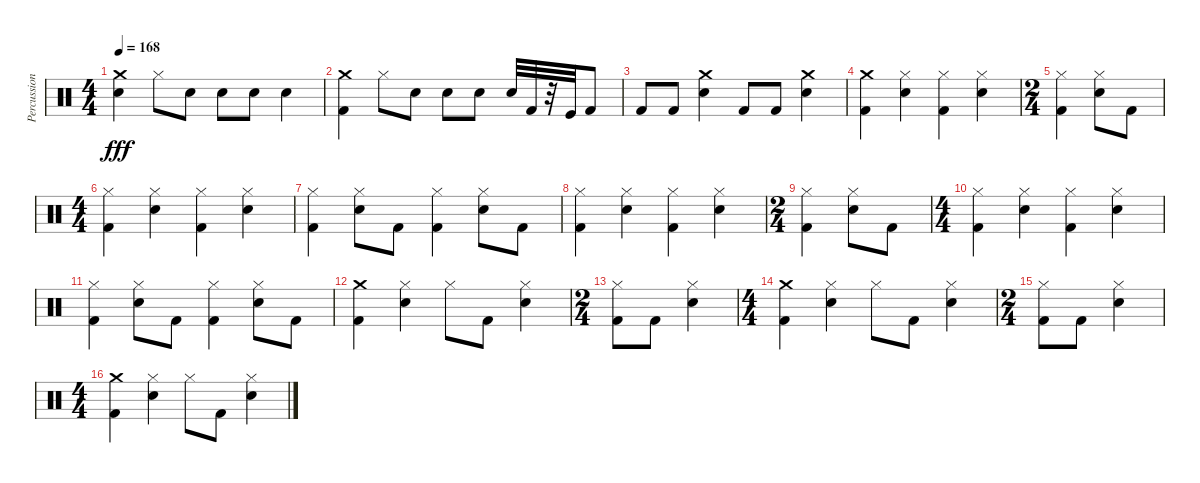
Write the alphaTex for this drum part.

\track ("Percussion" "Percussion") {instrument percussion}
\staff {score}
\articulation defaults
\ts (4 4)
\tempo 168
\clef neutral
\ks c
("Snare (hit) 2" "Crash medium (hit)").4{dy fff} "Hi-Hat (closed)".8 "Snare (hit) 2".8 "Snare (hit) 2".8 "Snare (hit) 2".8 "Snare (hit) 2".4 |
("Kick (hit) 2" "Crash medium (hit)").4 "Hi-Hat (closed)".8 "Snare (hit) 2".8 "Snare (hit) 2".8 "Snare (hit) 2".8 "Snare (hit) 2".32 "Kick (hit) 2".32 r.32 "Kick (hit)".32 "Kick (hit) 2".8 |
"Kick (hit) 2".8 "Kick (hit) 2".8 ("Snare (hit) 2" "Crash medium (hit)").4 "Kick (hit) 2".8 "Kick (hit) 2".8 ("Crash medium (hit)" "Snare (hit) 2").4 |
("Kick (hit) 2" "Crash medium (hit)").4 ("Hi-Hat (closed)" "Snare (hit) 2").4 ("Hi-Hat (closed)" "Kick (hit) 2").4 ("Snare (hit) 2" "Hi-Hat (closed)").4 |
\ts (2 4)
("Hi-Hat (closed)" "Kick (hit) 2").4 ("Snare (hit) 2" "Hi-Hat (closed)").8 "Kick (hit) 2".8 |
\ts (4 4)
("Kick (hit) 2" "Hi-Hat (closed)").4 ("Snare (hit) 2" "Hi-Hat (closed)").4 ("Kick (hit) 2" "Hi-Hat (closed)").4 ("Snare (hit) 2" "Hi-Hat (closed)").4 |
("Hi-Hat (closed)" "Kick (hit) 2").4 ("Snare (hit) 2" "Hi-Hat (closed)").8 "Kick (hit) 2".8 ("Kick (hit) 2" "Hi-Hat (closed)").4 ("Hi-Hat (closed)" "Snare (hit) 2").8 "Kick (hit) 2".8 |
("Hi-Hat (closed)" "Kick (hit) 2").4 ("Hi-Hat (closed)" "Snare (hit) 2").4 ("Hi-Hat (closed)" "Kick (hit) 2").4 ("Snare (hit) 2" "Hi-Hat (closed)").4 |
\ts (2 4)
("Hi-Hat (closed)" "Kick (hit) 2").4 ("Snare (hit) 2" "Hi-Hat (closed)").8 "Kick (hit) 2".8 |
\ts (4 4)
("Kick (hit) 2" "Hi-Hat (closed)").4 ("Snare (hit) 2" "Hi-Hat (closed)").4 ("Kick (hit) 2" "Hi-Hat (closed)").4 ("Snare (hit) 2" "Hi-Hat (closed)").4 |
("Hi-Hat (closed)" "Kick (hit) 2").4 ("Snare (hit) 2" "Hi-Hat (closed)").8 "Kick (hit) 2".8 ("Kick (hit) 2" "Hi-Hat (closed)").4 ("Hi-Hat (closed)" "Snare (hit) 2").8 "Kick (hit) 2".8 |
("Kick (hit) 2" "Crash medium (hit)").4 ("Hi-Hat (closed)" "Snare (hit) 2").4 "Hi-Hat (closed)".8 "Kick (hit) 2".8 ("Snare (hit) 2" "Hi-Hat (closed)").4 |
\ts (2 4)
("Kick (hit) 2" "Hi-Hat (closed)").8 "Kick (hit) 2".8 ("Snare (hit) 2" "Hi-Hat (closed)").4 |
\ts (4 4)
("Kick (hit) 2" "Crash medium (hit)").4 ("Hi-Hat (closed)" "Snare (hit) 2").4 "Hi-Hat (closed)".8 "Kick (hit) 2".8 ("Snare (hit) 2" "Hi-Hat (closed)").4 |
\ts (2 4)
("Kick (hit) 2" "Hi-Hat (closed)").8 "Kick (hit) 2".8 ("Snare (hit) 2" "Hi-Hat (closed)").4 |
\ts (4 4)
("Kick (hit) 2" "Crash medium (hit)").4 ("Hi-Hat (closed)" "Snare (hit) 2").4 "Hi-Hat (closed)".8 "Kick (hit) 2".8 ("Snare (hit) 2" "Hi-Hat (closed)").4
